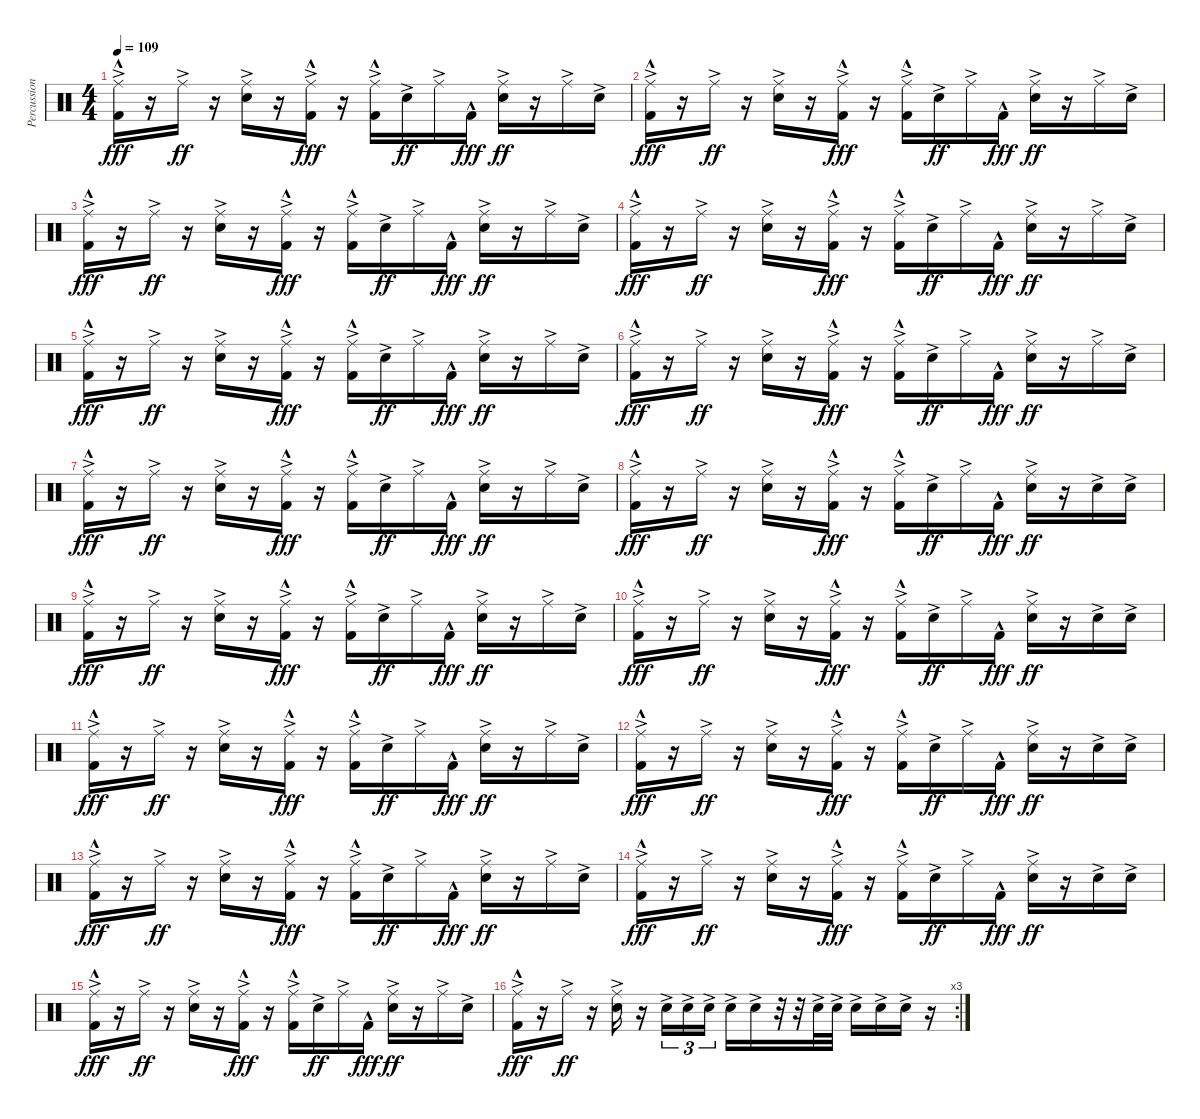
\track ("Percussion" "Percussion") {instrument percussion}
\staff {score}
\articulation defaults
\ts (4 4)
\tempo 109
\clef neutral
\ks c
("Ride (middle)"{ac} "Kick (hit) 2"{hac}).16{dy fff} r.16 "Ride (middle)"{ac}.16{dy ff} r.16 ("Ride (middle)"{ac} "Snare (hit) 2"{ac}).16 r.16 ("Ride (middle)"{ac} "Kick (hit) 2"{hac}).16{dy fff} r.16 ("Ride (middle)"{ac} "Kick (hit) 2"{hac}).16 "Snare (hit) 2"{ac}.16{dy ff} "Ride (middle)"{ac}.16 "Kick (hit) 2"{hac}.16{dy fff} ("Ride (middle)"{ac} "Snare (hit) 2"{ac}).16{dy ff} r.16 "Ride (middle)"{ac}.16 "Snare (hit) 2"{ac}.16 |
("Ride (middle)"{ac} "Kick (hit) 2"{hac}).16{dy fff} r.16 "Ride (middle)"{ac}.16{dy ff} r.16 ("Ride (middle)"{ac} "Snare (hit) 2"{ac}).16 r.16 ("Ride (middle)"{ac} "Kick (hit) 2"{hac}).16{dy fff} r.16 ("Ride (middle)"{ac} "Kick (hit) 2"{hac}).16 "Snare (hit) 2"{ac}.16{dy ff} "Ride (middle)"{ac}.16 "Kick (hit) 2"{hac}.16{dy fff} ("Ride (middle)"{ac} "Snare (hit) 2"{ac}).16{dy ff} r.16 "Ride (middle)"{ac}.16 "Snare (hit) 2"{ac}.16 |
("Ride (middle)"{ac} "Kick (hit) 2"{hac}).16{dy fff} r.16 "Ride (middle)"{ac}.16{dy ff} r.16 ("Ride (middle)"{ac} "Snare (hit) 2"{ac}).16 r.16 ("Ride (middle)"{ac} "Kick (hit) 2"{hac}).16{dy fff} r.16 ("Ride (middle)"{ac} "Kick (hit) 2"{hac}).16 "Snare (hit) 2"{ac}.16{dy ff} "Ride (middle)"{ac}.16 "Kick (hit) 2"{hac}.16{dy fff} ("Ride (middle)"{ac} "Snare (hit) 2"{ac}).16{dy ff} r.16 "Ride (middle)"{ac}.16 "Snare (hit) 2"{ac}.16 |
("Ride (middle)"{ac} "Kick (hit) 2"{hac}).16{dy fff} r.16 "Ride (middle)"{ac}.16{dy ff} r.16 ("Ride (middle)"{ac} "Snare (hit) 2"{ac}).16 r.16 ("Ride (middle)"{ac} "Kick (hit) 2"{hac}).16{dy fff} r.16 ("Ride (middle)"{ac} "Kick (hit) 2"{hac}).16 "Snare (hit) 2"{ac}.16{dy ff} "Ride (middle)"{ac}.16 "Kick (hit) 2"{hac}.16{dy fff} ("Ride (middle)"{ac} "Snare (hit) 2"{ac}).16{dy ff} r.16 "Ride (middle)"{ac}.16 "Snare (hit) 2"{ac}.16 |
("Ride (middle)"{ac} "Kick (hit) 2"{hac}).16{dy fff} r.16 "Ride (middle)"{ac}.16{dy ff} r.16 ("Ride (middle)"{ac} "Snare (hit) 2"{ac}).16 r.16 ("Ride (middle)"{ac} "Kick (hit) 2"{hac}).16{dy fff} r.16 ("Ride (middle)"{ac} "Kick (hit) 2"{hac}).16 "Snare (hit) 2"{ac}.16{dy ff} "Ride (middle)"{ac}.16 "Kick (hit) 2"{hac}.16{dy fff} ("Ride (middle)"{ac} "Snare (hit) 2"{ac}).16{dy ff} r.16 "Ride (middle)"{ac}.16 "Snare (hit) 2"{ac}.16 |
("Ride (middle)"{ac} "Kick (hit) 2"{hac}).16{dy fff} r.16 "Ride (middle)"{ac}.16{dy ff} r.16 ("Ride (middle)"{ac} "Snare (hit) 2"{ac}).16 r.16 ("Ride (middle)"{ac} "Kick (hit) 2"{hac}).16{dy fff} r.16 ("Ride (middle)"{ac} "Kick (hit) 2"{hac}).16 "Snare (hit) 2"{ac}.16{dy ff} "Ride (middle)"{ac}.16 "Kick (hit) 2"{hac}.16{dy fff} ("Ride (middle)"{ac} "Snare (hit) 2"{ac}).16{dy ff} r.16 "Ride (middle)"{ac}.16 "Snare (hit) 2"{ac}.16 |
("Ride (middle)"{ac} "Kick (hit) 2"{hac}).16{dy fff} r.16 "Ride (middle)"{ac}.16{dy ff} r.16 ("Ride (middle)"{ac} "Snare (hit) 2"{ac}).16 r.16 ("Ride (middle)"{ac} "Kick (hit) 2"{hac}).16{dy fff} r.16 ("Ride (middle)"{ac} "Kick (hit) 2"{hac}).16 "Snare (hit) 2"{ac}.16{dy ff} "Ride (middle)"{ac}.16 "Kick (hit) 2"{hac}.16{dy fff} ("Ride (middle)"{ac} "Snare (hit) 2"{ac}).16{dy ff} r.16 "Ride (middle)"{ac}.16 "Snare (hit) 2"{ac}.16 |
("Ride (middle)"{ac} "Kick (hit) 2"{hac}).16{dy fff} r.16 "Ride (middle)"{ac}.16{dy ff} r.16 ("Ride (middle)"{ac} "Snare (hit) 2"{ac}).16 r.16 ("Ride (middle)"{ac} "Kick (hit) 2"{hac}).16{dy fff} r.16 ("Ride (middle)"{ac} "Kick (hit) 2"{hac}).16 "Snare (hit) 2"{ac}.16{dy ff} "Ride (middle)"{ac}.16 "Kick (hit) 2"{hac}.16{dy fff} ("Ride (middle)"{ac} "Snare (hit) 2"{ac}).16{dy ff} r.16 "Snare (hit) 2"{ac}.16 "Snare (hit) 2"{ac}.16 |
("Ride (middle)"{ac} "Kick (hit) 2"{hac}).16{dy fff} r.16 "Ride (middle)"{ac}.16{dy ff} r.16 ("Ride (middle)"{ac} "Snare (hit) 2"{ac}).16 r.16 ("Ride (middle)"{ac} "Kick (hit) 2"{hac}).16{dy fff} r.16 ("Ride (middle)"{ac} "Kick (hit) 2"{hac}).16 "Snare (hit) 2"{ac}.16{dy ff} "Ride (middle)"{ac}.16 "Kick (hit) 2"{hac}.16{dy fff} ("Ride (middle)"{ac} "Snare (hit) 2"{ac}).16{dy ff} r.16 "Ride (middle)"{ac}.16 "Snare (hit) 2"{ac}.16 |
("Ride (middle)"{ac} "Kick (hit) 2"{hac}).16{dy fff} r.16 "Ride (middle)"{ac}.16{dy ff} r.16 ("Ride (middle)"{ac} "Snare (hit) 2"{ac}).16 r.16 ("Ride (middle)"{ac} "Kick (hit) 2"{hac}).16{dy fff} r.16 ("Ride (middle)"{ac} "Kick (hit) 2"{hac}).16 "Snare (hit) 2"{ac}.16{dy ff} "Ride (middle)"{ac}.16 "Kick (hit) 2"{hac}.16{dy fff} ("Ride (middle)"{ac} "Snare (hit) 2"{ac}).16{dy ff} r.16 "Snare (hit) 2"{ac}.16 "Snare (hit) 2"{ac}.16 |
("Ride (middle)"{ac} "Kick (hit) 2"{hac}).16{dy fff} r.16 "Ride (middle)"{ac}.16{dy ff} r.16 ("Ride (middle)"{ac} "Snare (hit) 2"{ac}).16 r.16 ("Ride (middle)"{ac} "Kick (hit) 2"{hac}).16{dy fff} r.16 ("Ride (middle)"{ac} "Kick (hit) 2"{hac}).16 "Snare (hit) 2"{ac}.16{dy ff} "Ride (middle)"{ac}.16 "Kick (hit) 2"{hac}.16{dy fff} ("Ride (middle)"{ac} "Snare (hit) 2"{ac}).16{dy ff} r.16 "Ride (middle)"{ac}.16 "Snare (hit) 2"{ac}.16 |
("Ride (middle)"{ac} "Kick (hit) 2"{hac}).16{dy fff} r.16 "Ride (middle)"{ac}.16{dy ff} r.16 ("Ride (middle)"{ac} "Snare (hit) 2"{ac}).16 r.16 ("Ride (middle)"{ac} "Kick (hit) 2"{hac}).16{dy fff} r.16 ("Ride (middle)"{ac} "Kick (hit) 2"{hac}).16 "Snare (hit) 2"{ac}.16{dy ff} "Ride (middle)"{ac}.16 "Kick (hit) 2"{hac}.16{dy fff} ("Ride (middle)"{ac} "Snare (hit) 2"{ac}).16{dy ff} r.16 "Snare (hit) 2"{ac}.16 "Snare (hit) 2"{ac}.16 |
("Ride (middle)"{ac} "Kick (hit) 2"{hac}).16{dy fff} r.16 "Ride (middle)"{ac}.16{dy ff} r.16 ("Ride (middle)"{ac} "Snare (hit) 2"{ac}).16 r.16 ("Ride (middle)"{ac} "Kick (hit) 2"{hac}).16{dy fff} r.16 ("Ride (middle)"{ac} "Kick (hit) 2"{hac}).16 "Snare (hit) 2"{ac}.16{dy ff} "Ride (middle)"{ac}.16 "Kick (hit) 2"{hac}.16{dy fff} ("Ride (middle)"{ac} "Snare (hit) 2"{ac}).16{dy ff} r.16 "Ride (middle)"{ac}.16 "Snare (hit) 2"{ac}.16 |
("Ride (middle)"{ac} "Kick (hit) 2"{hac}).16{dy fff} r.16 "Ride (middle)"{ac}.16{dy ff} r.16 ("Ride (middle)"{ac} "Snare (hit) 2"{ac}).16 r.16 ("Ride (middle)"{ac} "Kick (hit) 2"{hac}).16{dy fff} r.16 ("Ride (middle)"{ac} "Kick (hit) 2"{hac}).16 "Snare (hit) 2"{ac}.16{dy ff} "Ride (middle)"{ac}.16 "Kick (hit) 2"{hac}.16{dy fff} ("Ride (middle)"{ac} "Snare (hit) 2"{ac}).16{dy ff} r.16 "Snare (hit) 2"{ac}.16 "Snare (hit) 2"{ac}.16 |
("Ride (middle)"{ac} "Kick (hit) 2"{hac}).16{dy fff} r.16 "Ride (middle)"{ac}.16{dy ff} r.16 ("Ride (middle)"{ac} "Snare (hit) 2"{ac}).16 r.16 ("Ride (middle)"{ac} "Kick (hit) 2"{hac}).16{dy fff} r.16 ("Ride (middle)"{ac} "Kick (hit) 2"{hac}).16 "Snare (hit) 2"{ac}.16{dy ff} "Ride (middle)"{ac}.16 "Kick (hit) 2"{hac}.16{dy fff} ("Ride (middle)"{ac} "Snare (hit) 2"{ac}).16{dy ff} r.16 "Ride (middle)"{ac}.16 "Snare (hit) 2"{ac}.16 |
\rc 3
("Ride (middle)"{ac} "Kick (hit) 2"{hac}).16{dy fff} r.16 "Ride (middle)"{ac}.16{dy ff} r.16 ("Ride (middle)"{ac} "Snare (hit) 2"{ac}).16 r.16 "Snare (hit) 2"{ac}.16{tu (3 2)} "Snare (hit) 2"{ac}.16{tu (3 2)} "Snare (hit) 2"{ac}.16{tu (3 2)} "Snare (hit) 2"{ac}.16 "Snare (hit) 2"{ac}.16 r.32 r.32 "Snare (hit) 2"{ac}.32 "Snare (hit) 2"{ac}.32 "Snare (hit) 2"{ac}.16 "Snare (hit) 2"{ac}.16 "Snare (hit) 2"{ac}.16 r.16
